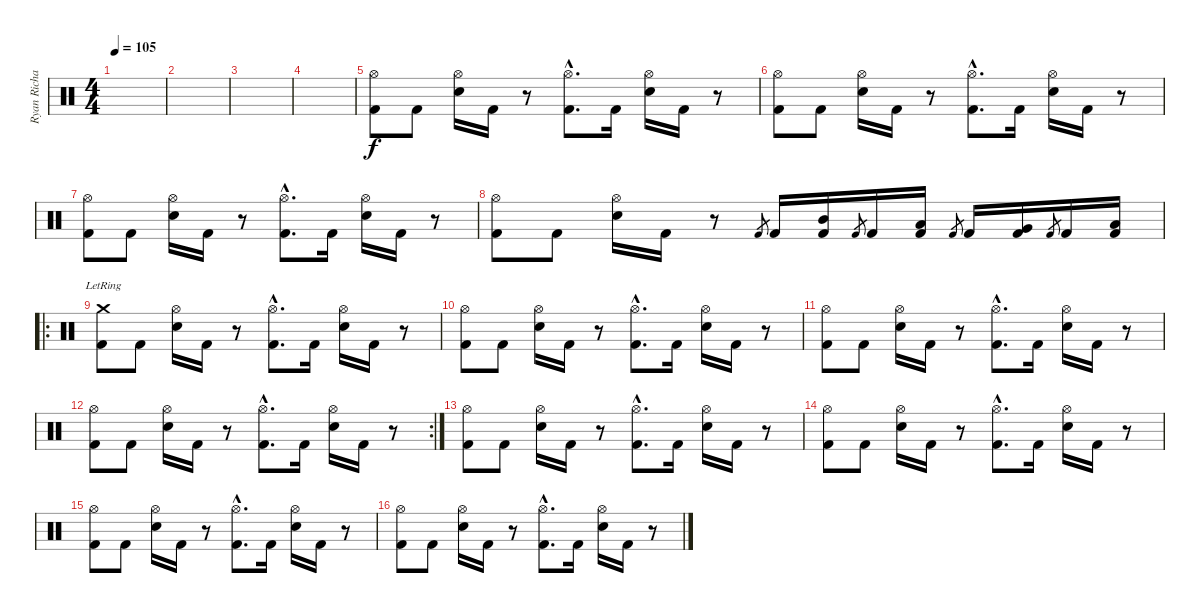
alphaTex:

\track ("Ryan Richards" "Ryan Richa") {instrument percussion}
\staff {score}
\articulation defaults
\ts (4 4)
\tempo 105
\clef neutral
\ks c
|
|
|
|
("Hi-Hat (open)" "Kick (hit) 2").8 "Kick (hit) 2".8 ("Hi-Hat (open)" "Snare (hit) 2").16 "Kick (hit) 2".16 r.8 ("Hi-Hat (open)"{hac} "Kick (hit) 2"{hac}).8{d} "Kick (hit) 2".16 ("Hi-Hat (open)" "Snare (hit) 2").16 "Kick (hit) 2".16 r.8 |
("Hi-Hat (open)" "Kick (hit) 2").8 "Kick (hit) 2".8 ("Hi-Hat (open)" "Snare (hit) 2").16 "Kick (hit) 2".16 r.8 ("Hi-Hat (open)"{hac} "Kick (hit) 2"{hac}).8{d} "Kick (hit) 2".16 ("Hi-Hat (open)" "Snare (hit) 2").16 "Kick (hit) 2".16 r.8 |
("Hi-Hat (open)" "Kick (hit) 2").8 "Kick (hit) 2".8 ("Hi-Hat (open)" "Snare (hit) 2").16 "Kick (hit) 2".16 r.8 ("Hi-Hat (open)"{hac} "Kick (hit) 2"{hac}).8{d} "Kick (hit) 2".16 ("Hi-Hat (open)" "Snare (hit) 2").16 "Kick (hit) 2".16 r.8 |
("Hi-Hat (open)" "Kick (hit) 2").8 "Kick (hit) 2".8 ("Hi-Hat (open)" "Snare (hit) 2").16 "Kick (hit) 2".16 r.8 "Kick (hit) 2".8{gr} "Kick (hit) 2".16 ("Mid Tom (hit)" "Kick (hit) 2").16 "Kick (hit) 2".8{gr} "Kick (hit) 2".16 ("Low Tom (hit)" "Kick (hit) 2").16 "Kick (hit) 2".8{gr} "Kick (hit) 2".16 ("Very Low Tom (hit)" "Kick (hit) 2").16 "Kick (hit) 2".8{gr} "Kick (hit) 2".16 ("Low Floor Tom (hit)" "Kick (hit) 2").16 |
\ro
("Crash medium (hit)"{lr} "Kick (hit) 2").8 "Kick (hit) 2".8 ("Hi-Hat (open)" "Snare (hit) 2").16 "Kick (hit) 2".16 r.8 ("Hi-Hat (open)"{hac} "Kick (hit) 2"{hac}).8{d} "Kick (hit) 2".16 ("Hi-Hat (open)" "Snare (hit) 2").16 "Kick (hit) 2".16 r.8 |
("Hi-Hat (open)" "Kick (hit) 2").8 "Kick (hit) 2".8 ("Hi-Hat (open)" "Snare (hit) 2").16 "Kick (hit) 2".16 r.8 ("Hi-Hat (open)"{hac} "Kick (hit) 2"{hac}).8{d} "Kick (hit) 2".16 ("Hi-Hat (open)" "Snare (hit) 2").16 "Kick (hit) 2".16 r.8 |
("Hi-Hat (open)" "Kick (hit) 2").8 "Kick (hit) 2".8 ("Hi-Hat (open)" "Snare (hit) 2").16 "Kick (hit) 2".16 r.8 ("Hi-Hat (open)"{hac} "Kick (hit) 2"{hac}).8{d} "Kick (hit) 2".16 ("Hi-Hat (open)" "Snare (hit) 2").16 "Kick (hit) 2".16 r.8 |
\rc 2
("Hi-Hat (open)" "Kick (hit) 2").8 "Kick (hit) 2".8 ("Hi-Hat (open)" "Snare (hit) 2").16 "Kick (hit) 2".16 r.8 ("Hi-Hat (open)"{hac} "Kick (hit) 2"{hac}).8{d} "Kick (hit) 2".16 ("Hi-Hat (open)" "Snare (hit) 2").16 "Kick (hit) 2".16 r.8 |
("Hi-Hat (open)" "Kick (hit) 2").8 "Kick (hit) 2".8 ("Hi-Hat (open)" "Snare (hit) 2").16 "Kick (hit) 2".16 r.8 ("Hi-Hat (open)"{hac} "Kick (hit) 2"{hac}).8{d} "Kick (hit) 2".16 ("Hi-Hat (open)" "Snare (hit) 2").16 "Kick (hit) 2".16 r.8 |
("Hi-Hat (open)" "Kick (hit) 2").8 "Kick (hit) 2".8 ("Hi-Hat (open)" "Snare (hit) 2").16 "Kick (hit) 2".16 r.8 ("Hi-Hat (open)"{hac} "Kick (hit) 2"{hac}).8{d} "Kick (hit) 2".16 ("Hi-Hat (open)" "Snare (hit) 2").16 "Kick (hit) 2".16 r.8 |
("Hi-Hat (open)" "Kick (hit) 2").8 "Kick (hit) 2".8 ("Hi-Hat (open)" "Snare (hit) 2").16 "Kick (hit) 2".16 r.8 ("Hi-Hat (open)"{hac} "Kick (hit) 2"{hac}).8{d} "Kick (hit) 2".16 ("Hi-Hat (open)" "Snare (hit) 2").16 "Kick (hit) 2".16 r.8 |
("Hi-Hat (open)" "Kick (hit) 2").8 "Kick (hit) 2".8 ("Hi-Hat (open)" "Snare (hit) 2").16 "Kick (hit) 2".16 r.8 ("Hi-Hat (open)"{hac} "Kick (hit) 2"{hac}).8{d} "Kick (hit) 2".16 ("Hi-Hat (open)" "Snare (hit) 2").16 "Kick (hit) 2".16 r.8
